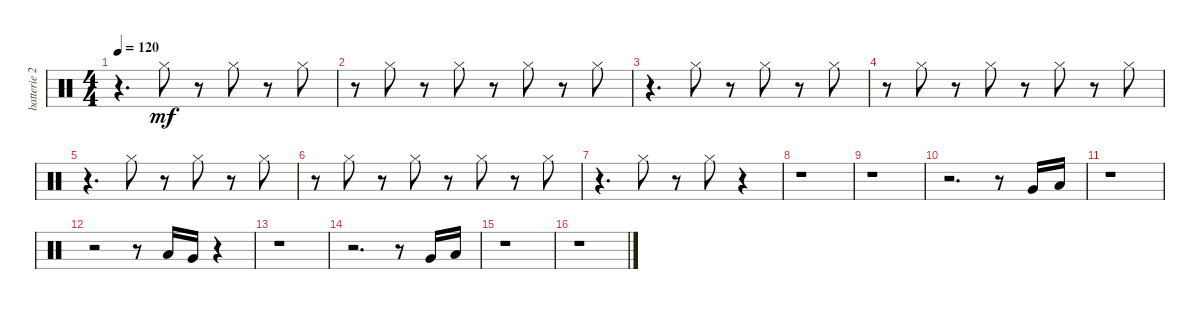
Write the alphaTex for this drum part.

\track ("batterie 2" "batterie 2") {instrument percussion}
\staff {score}
\articulation defaults
\ts (4 4)
\tempo 120
\clef neutral
\ks c
r.4{d dy mf} "Hi-Hat (closed)".8 r.8 "Hi-Hat (closed)".8 r.8 "Hi-Hat (closed)".8 |
r.8 "Hi-Hat (closed)".8 r.8 "Hi-Hat (closed)".8 r.8 "Hi-Hat (closed)".8 r.8 "Hi-Hat (closed)".8 |
r.4{d} "Hi-Hat (closed)".8 r.8 "Hi-Hat (closed)".8 r.8 "Hi-Hat (closed)".8 |
r.8 "Hi-Hat (closed)".8 r.8 "Hi-Hat (closed)".8 r.8 "Hi-Hat (closed)".8 r.8 "Hi-Hat (closed)".8 |
r.4{d} "Hi-Hat (closed)".8 r.8 "Hi-Hat (closed)".8 r.8 "Hi-Hat (closed)".8 |
r.8 "Hi-Hat (closed)".8 r.8 "Hi-Hat (closed)".8 r.8 "Hi-Hat (closed)".8 r.8 "Hi-Hat (closed)".8 |
r.4{d} "Hi-Hat (closed)".8 r.8 "Hi-Hat (closed)".8 r.4 |
r.1 |
r.1 |
r.2{d} r.8 "Very Low Tom (hit)".16 "Low Floor Tom (hit)".16 |
r.1 |
r.2 r.8 "Low Tom (hit)".16 "Very Low Tom (hit)".16 r.4 |
r.1 |
r.2{d} r.8 "Very Low Tom (hit)".16 "Low Floor Tom (hit)".16 |
r.1 |
r.1
